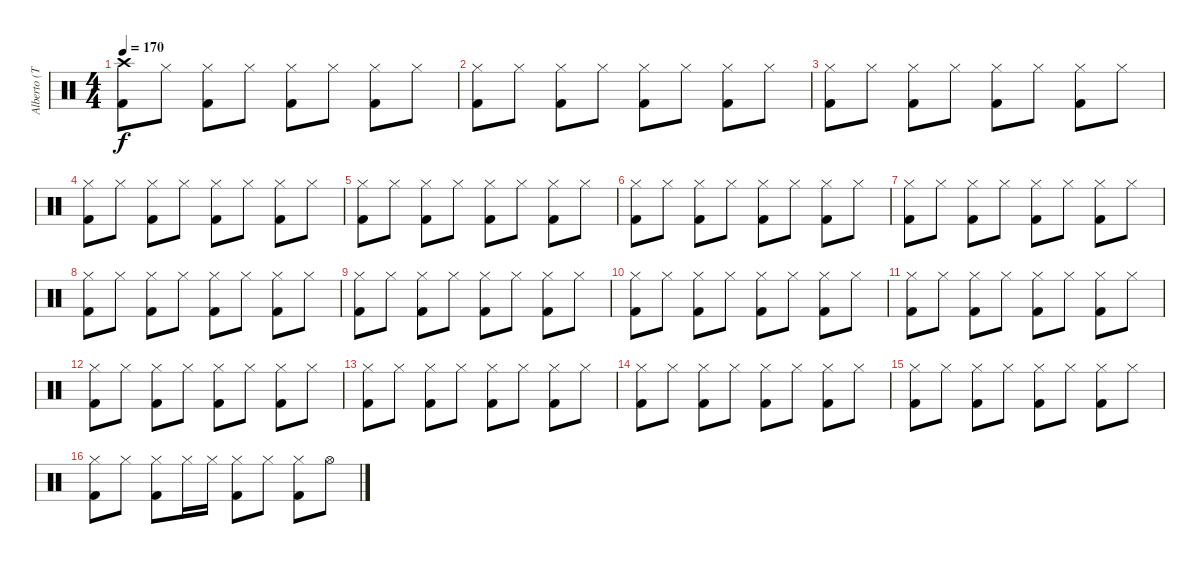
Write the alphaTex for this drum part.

\track ("Alberto (Toshi)" "Alberto (T") {instrument percussion}
\staff {score}
\articulation defaults
\ts (4 4)
\tempo 170
\clef neutral
\ks c
("Crash high (hit)" "Kick (hit) 2").8{dy f} "Hi-Hat (closed)".8 ("Hi-Hat (closed)" "Kick (hit) 2").8 "Hi-Hat (closed)".8 ("Hi-Hat (closed)" "Kick (hit) 2").8 "Hi-Hat (closed)".8 ("Hi-Hat (closed)" "Kick (hit) 2").8 "Hi-Hat (closed)".8 |
("Hi-Hat (closed)" "Kick (hit) 2").8 "Hi-Hat (closed)".8 ("Hi-Hat (closed)" "Kick (hit) 2").8 "Hi-Hat (closed)".8 ("Hi-Hat (closed)" "Kick (hit) 2").8 "Hi-Hat (closed)".8 ("Hi-Hat (closed)" "Kick (hit) 2").8 "Hi-Hat (closed)".8 |
("Hi-Hat (closed)" "Kick (hit) 2").8 "Hi-Hat (closed)".8 ("Hi-Hat (closed)" "Kick (hit) 2").8 "Hi-Hat (closed)".8 ("Hi-Hat (closed)" "Kick (hit) 2").8 "Hi-Hat (closed)".8 ("Hi-Hat (closed)" "Kick (hit) 2").8 "Hi-Hat (closed)".8 |
("Hi-Hat (closed)" "Kick (hit) 2").8 "Hi-Hat (closed)".8 ("Hi-Hat (closed)" "Kick (hit) 2").8 "Hi-Hat (closed)".8 ("Hi-Hat (closed)" "Kick (hit) 2").8 "Hi-Hat (closed)".8 ("Hi-Hat (closed)" "Kick (hit) 2").8 "Hi-Hat (closed)".8 |
("Hi-Hat (closed)" "Kick (hit) 2").8 "Hi-Hat (closed)".8 ("Hi-Hat (closed)" "Kick (hit) 2").8 "Hi-Hat (closed)".8 ("Hi-Hat (closed)" "Kick (hit) 2").8 "Hi-Hat (closed)".8 ("Hi-Hat (closed)" "Kick (hit) 2").8 "Hi-Hat (closed)".8 |
("Hi-Hat (closed)" "Kick (hit) 2").8 "Hi-Hat (closed)".8 ("Hi-Hat (closed)" "Kick (hit) 2").8 "Hi-Hat (closed)".8 ("Hi-Hat (closed)" "Kick (hit) 2").8 "Hi-Hat (closed)".8 ("Hi-Hat (closed)" "Kick (hit) 2").8 "Hi-Hat (closed)".8 |
("Hi-Hat (closed)" "Kick (hit) 2").8 "Hi-Hat (closed)".8 ("Hi-Hat (closed)" "Kick (hit) 2").8 "Hi-Hat (closed)".8 ("Hi-Hat (closed)" "Kick (hit) 2").8 "Hi-Hat (closed)".8 ("Hi-Hat (closed)" "Kick (hit) 2").8 "Hi-Hat (closed)".8 |
("Hi-Hat (closed)" "Kick (hit) 2").8 "Hi-Hat (closed)".8 ("Hi-Hat (closed)" "Kick (hit) 2").8 "Hi-Hat (closed)".8 ("Hi-Hat (closed)" "Kick (hit) 2").8 "Hi-Hat (closed)".8 ("Hi-Hat (closed)" "Kick (hit) 2").8 "Hi-Hat (closed)".8 |
("Hi-Hat (closed)" "Kick (hit) 2").8 "Hi-Hat (closed)".8 ("Hi-Hat (closed)" "Kick (hit) 2").8 "Hi-Hat (closed)".8 ("Hi-Hat (closed)" "Kick (hit) 2").8 "Hi-Hat (closed)".8 ("Hi-Hat (closed)" "Kick (hit) 2").8 "Hi-Hat (closed)".8 |
("Hi-Hat (closed)" "Kick (hit) 2").8 "Hi-Hat (closed)".8 ("Hi-Hat (closed)" "Kick (hit) 2").8 "Hi-Hat (closed)".8 ("Hi-Hat (closed)" "Kick (hit) 2").8 "Hi-Hat (closed)".8 ("Hi-Hat (closed)" "Kick (hit) 2").8 "Hi-Hat (closed)".8 |
("Hi-Hat (closed)" "Kick (hit) 2").8 "Hi-Hat (closed)".8 ("Hi-Hat (closed)" "Kick (hit) 2").8 "Hi-Hat (closed)".8 ("Hi-Hat (closed)" "Kick (hit) 2").8 "Hi-Hat (closed)".8 ("Hi-Hat (closed)" "Kick (hit) 2").8 "Hi-Hat (closed)".8 |
("Hi-Hat (closed)" "Kick (hit) 2").8 "Hi-Hat (closed)".8 ("Hi-Hat (closed)" "Kick (hit) 2").8 "Hi-Hat (closed)".8 ("Hi-Hat (closed)" "Kick (hit) 2").8 "Hi-Hat (closed)".8 ("Hi-Hat (closed)" "Kick (hit) 2").8 "Hi-Hat (closed)".8 |
("Hi-Hat (closed)" "Kick (hit) 2").8 "Hi-Hat (closed)".8 ("Hi-Hat (closed)" "Kick (hit) 2").8 "Hi-Hat (closed)".8 ("Hi-Hat (closed)" "Kick (hit) 2").8 "Hi-Hat (closed)".8 ("Hi-Hat (closed)" "Kick (hit) 2").8 "Hi-Hat (closed)".8 |
("Hi-Hat (closed)" "Kick (hit) 2").8 "Hi-Hat (closed)".8 ("Hi-Hat (closed)" "Kick (hit) 2").8 "Hi-Hat (closed)".8 ("Hi-Hat (closed)" "Kick (hit) 2").8 "Hi-Hat (closed)".8 ("Hi-Hat (closed)" "Kick (hit) 2").8 "Hi-Hat (closed)".8 |
("Hi-Hat (closed)" "Kick (hit) 2").8 "Hi-Hat (closed)".8 ("Hi-Hat (closed)" "Kick (hit) 2").8 "Hi-Hat (closed)".8 ("Hi-Hat (closed)" "Kick (hit) 2").8 "Hi-Hat (closed)".8 ("Hi-Hat (closed)" "Kick (hit) 2").8 "Hi-Hat (closed)".8 |
("Hi-Hat (closed)" "Kick (hit) 2").8 "Hi-Hat (closed)".8 ("Hi-Hat (closed)" "Kick (hit) 2").8 "Hi-Hat (closed)".16 "Hi-Hat (closed)".16 ("Hi-Hat (closed)" "Kick (hit) 2").8 "Hi-Hat (closed)".8 ("Hi-Hat (closed)" "Kick (hit) 2").8 "Hi-Hat (open)".8
